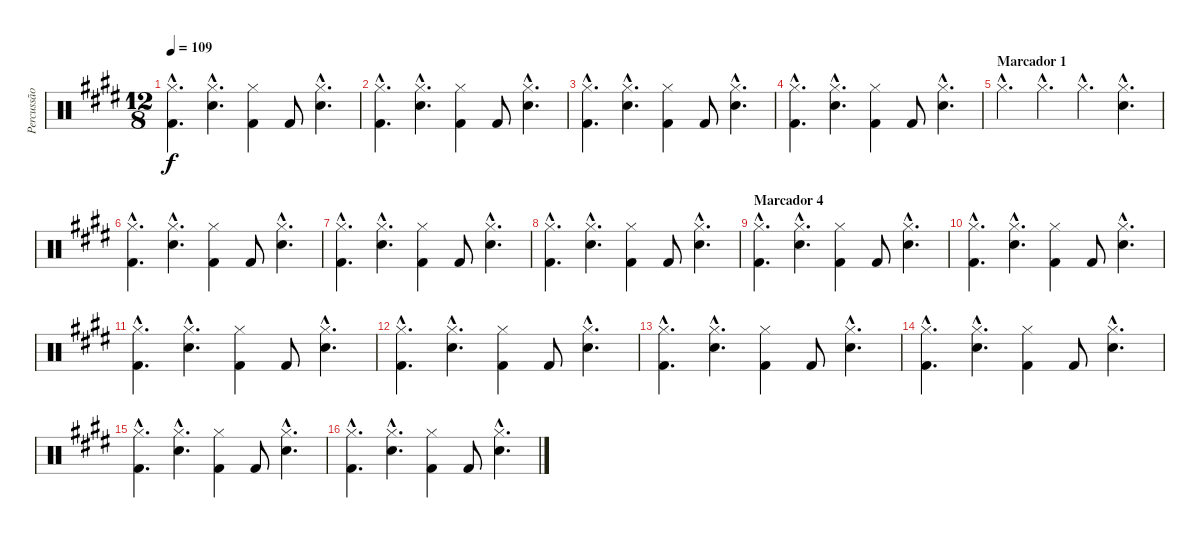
\track ("Percussão" "Percussão") {instrument percussion}
\staff {score}
\articulation defaults
\ts (12 8)
\tempo 109
\clef neutral
\ks e
("Hi-Hat (closed)"{hac} "Kick (hit) 2"{hac}).4{d dy f} ("Hi-Hat (closed)"{hac} "Electric Snare (hit)"{hac}).4{d} ("Hi-Hat (closed)" "Kick (hit) 2").4 "Kick (hit) 2".8 ("Hi-Hat (closed)"{hac} "Electric Snare (hit)"{hac}).4{d} |
("Hi-Hat (closed)"{hac} "Kick (hit) 2"{hac}).4{d} ("Hi-Hat (closed)"{hac} "Electric Snare (hit)"{hac}).4{d} ("Hi-Hat (closed)" "Kick (hit) 2").4 "Kick (hit) 2".8 ("Hi-Hat (closed)"{hac} "Electric Snare (hit)"{hac}).4{d} |
("Hi-Hat (closed)"{hac} "Kick (hit) 2"{hac}).4{d} ("Hi-Hat (closed)"{hac} "Electric Snare (hit)"{hac}).4{d} ("Hi-Hat (closed)" "Kick (hit) 2").4 "Kick (hit) 2".8 ("Hi-Hat (closed)"{hac} "Electric Snare (hit)"{hac}).4{d} |
("Hi-Hat (closed)"{hac} "Kick (hit) 2"{hac}).4{d} ("Hi-Hat (closed)"{hac} "Electric Snare (hit)"{hac}).4{d} ("Hi-Hat (closed)" "Kick (hit) 2").4 "Kick (hit) 2".8 ("Hi-Hat (closed)"{hac} "Electric Snare (hit)"{hac}).4{d} |
\section ("" "Marcador 1")
"Hi-Hat (closed)"{hac}.4{d} "Hi-Hat (closed)"{hac}.4{d} "Hi-Hat (closed)"{hac}.4{d} ("Hi-Hat (closed)"{hac} "Electric Snare (hit)"{hac}).4{d} |
("Hi-Hat (closed)"{hac} "Kick (hit) 2"{hac}).4{d} ("Hi-Hat (closed)"{hac} "Electric Snare (hit)"{hac}).4{d} ("Hi-Hat (closed)" "Kick (hit) 2").4 "Kick (hit) 2".8 ("Hi-Hat (closed)"{hac} "Electric Snare (hit)"{hac}).4{d} |
("Hi-Hat (closed)"{hac} "Kick (hit) 2"{hac}).4{d} ("Hi-Hat (closed)"{hac} "Electric Snare (hit)"{hac}).4{d} ("Hi-Hat (closed)" "Kick (hit) 2").4 "Kick (hit) 2".8 ("Hi-Hat (closed)"{hac} "Electric Snare (hit)"{hac}).4{d} |
("Hi-Hat (closed)"{hac} "Kick (hit) 2"{hac}).4{d} ("Hi-Hat (closed)"{hac} "Electric Snare (hit)"{hac}).4{d} ("Hi-Hat (closed)" "Kick (hit) 2").4 "Kick (hit) 2".8 ("Hi-Hat (closed)"{hac} "Electric Snare (hit)"{hac}).4{d} |
\section ("" "Marcador 4")
("Hi-Hat (closed)"{hac} "Kick (hit) 2"{hac}).4{d} ("Hi-Hat (closed)"{hac} "Electric Snare (hit)"{hac}).4{d} ("Hi-Hat (closed)" "Kick (hit) 2").4 "Kick (hit) 2".8 ("Hi-Hat (closed)"{hac} "Electric Snare (hit)"{hac}).4{d} |
("Hi-Hat (closed)"{hac} "Kick (hit) 2"{hac}).4{d} ("Hi-Hat (closed)"{hac} "Electric Snare (hit)"{hac}).4{d} ("Hi-Hat (closed)" "Kick (hit) 2").4 "Kick (hit) 2".8 ("Hi-Hat (closed)"{hac} "Electric Snare (hit)"{hac}).4{d} |
("Hi-Hat (closed)"{hac} "Kick (hit) 2"{hac}).4{d} ("Hi-Hat (closed)"{hac} "Electric Snare (hit)"{hac}).4{d} ("Hi-Hat (closed)" "Kick (hit) 2").4 "Kick (hit) 2".8 ("Hi-Hat (closed)"{hac} "Electric Snare (hit)"{hac}).4{d} |
("Hi-Hat (closed)"{hac} "Kick (hit) 2"{hac}).4{d} ("Hi-Hat (closed)"{hac} "Electric Snare (hit)"{hac}).4{d} ("Hi-Hat (closed)" "Kick (hit) 2").4 "Kick (hit) 2".8 ("Hi-Hat (closed)"{hac} "Electric Snare (hit)"{hac}).4{d} |
("Hi-Hat (closed)"{hac} "Kick (hit) 2"{hac}).4{d} ("Hi-Hat (closed)"{hac} "Electric Snare (hit)"{hac}).4{d} ("Hi-Hat (closed)" "Kick (hit) 2").4 "Kick (hit) 2".8 ("Hi-Hat (closed)"{hac} "Electric Snare (hit)"{hac}).4{d} |
("Hi-Hat (closed)"{hac} "Kick (hit) 2"{hac}).4{d} ("Hi-Hat (closed)"{hac} "Electric Snare (hit)"{hac}).4{d} ("Hi-Hat (closed)" "Kick (hit) 2").4 "Kick (hit) 2".8 ("Hi-Hat (closed)"{hac} "Electric Snare (hit)"{hac}).4{d} |
("Hi-Hat (closed)"{hac} "Kick (hit) 2"{hac}).4{d} ("Hi-Hat (closed)"{hac} "Electric Snare (hit)"{hac}).4{d} ("Hi-Hat (closed)" "Kick (hit) 2").4 "Kick (hit) 2".8 ("Hi-Hat (closed)"{hac} "Electric Snare (hit)"{hac}).4{d} |
("Hi-Hat (closed)"{hac} "Kick (hit) 2"{hac}).4{d} ("Hi-Hat (closed)"{hac} "Electric Snare (hit)"{hac}).4{d} ("Hi-Hat (closed)" "Kick (hit) 2").4 "Kick (hit) 2".8 ("Hi-Hat (closed)"{hac} "Electric Snare (hit)"{hac}).4{d}
